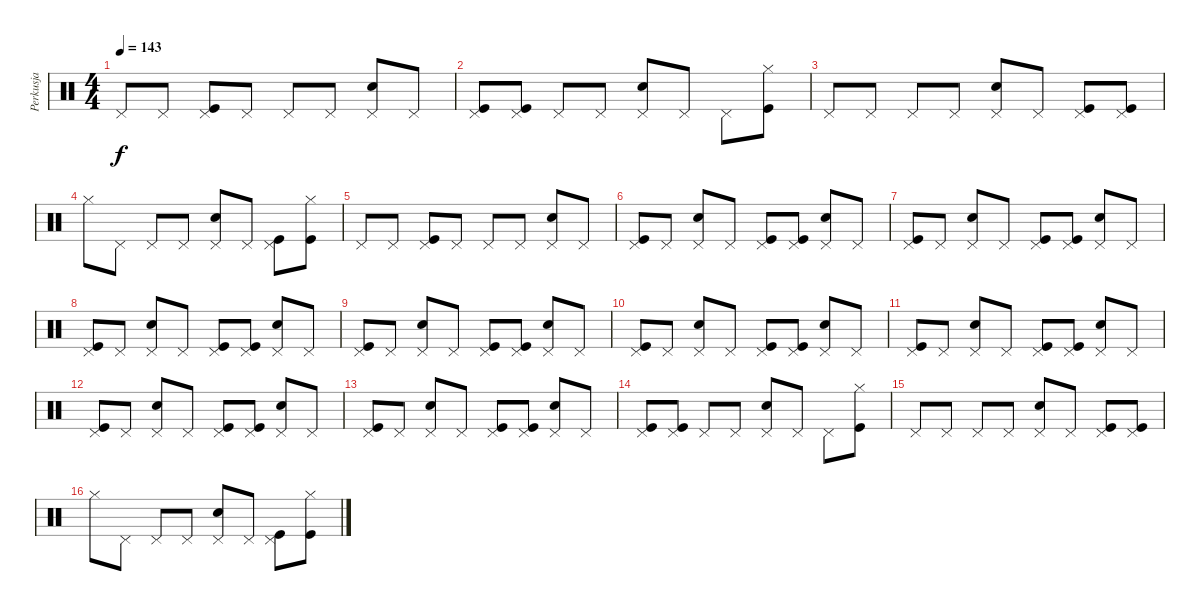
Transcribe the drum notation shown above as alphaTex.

\track ("Perkusja" "Perkusja") {instrument percussion}
\staff {score}
\articulation defaults
\ts (4 4)
\tempo 143
\clef neutral
\ks c "Pedal Hi-Hat (hit)".8{dy f} "Pedal Hi-Hat (hit)".8
("Pedal Hi-Hat (hit)" "Kick (hit)").8 "Pedal Hi-Hat (hit)".8 "Pedal Hi-Hat (hit)".8 "Pedal Hi-Hat (hit)".8 ("Pedal Hi-Hat (hit)" "Snare (hit) 2").8 "Pedal Hi-Hat (hit)".8 |
("Pedal Hi-Hat (hit)" "Kick (hit)").8 ("Pedal Hi-Hat (hit)" "Kick (hit)").8 "Pedal Hi-Hat (hit)".8 "Pedal Hi-Hat (hit)".8 ("Pedal Hi-Hat (hit)" "Snare (hit) 2").8 "Pedal Hi-Hat (hit)".8 "Pedal Hi-Hat (hit)".8 ("Hi-Hat (closed)" "Kick (hit)").8 |
"Pedal Hi-Hat (hit)".8 "Pedal Hi-Hat (hit)".8 "Pedal Hi-Hat (hit)".8 "Pedal Hi-Hat (hit)".8 ("Pedal Hi-Hat (hit)" "Snare (hit) 2").8 "Pedal Hi-Hat (hit)".8 ("Pedal Hi-Hat (hit)" "Kick (hit)").8 ("Pedal Hi-Hat (hit)" "Kick (hit)").8 |
"Hi-Hat (closed)".8 "Pedal Hi-Hat (hit)".8 "Pedal Hi-Hat (hit)".8 "Pedal Hi-Hat (hit)".8 ("Pedal Hi-Hat (hit)" "Snare (hit) 2").8 "Pedal Hi-Hat (hit)".8 ("Pedal Hi-Hat (hit)" "Kick (hit)").8 ("Hi-Hat (closed)" "Kick (hit)").8 |
"Pedal Hi-Hat (hit)".8 "Pedal Hi-Hat (hit)".8 ("Pedal Hi-Hat (hit)" "Kick (hit)").8 "Pedal Hi-Hat (hit)".8 "Pedal Hi-Hat (hit)".8 "Pedal Hi-Hat (hit)".8 ("Pedal Hi-Hat (hit)" "Snare (hit) 2").8 "Pedal Hi-Hat (hit)".8 |
("Pedal Hi-Hat (hit)" "Kick (hit)").8 "Pedal Hi-Hat (hit)".8 ("Pedal Hi-Hat (hit)" "Snare (hit) 2").8 "Pedal Hi-Hat (hit)".8 ("Pedal Hi-Hat (hit)" "Kick (hit)").8 ("Pedal Hi-Hat (hit)" "Kick (hit)").8 ("Pedal Hi-Hat (hit)" "Snare (hit) 2").8 "Pedal Hi-Hat (hit)".8 |
("Pedal Hi-Hat (hit)" "Kick (hit)").8 "Pedal Hi-Hat (hit)".8 ("Pedal Hi-Hat (hit)" "Snare (hit) 2").8 "Pedal Hi-Hat (hit)".8 ("Pedal Hi-Hat (hit)" "Kick (hit)").8 ("Pedal Hi-Hat (hit)" "Kick (hit)").8 ("Pedal Hi-Hat (hit)" "Snare (hit) 2").8 "Pedal Hi-Hat (hit)".8 |
("Pedal Hi-Hat (hit)" "Kick (hit)").8 "Pedal Hi-Hat (hit)".8 ("Pedal Hi-Hat (hit)" "Snare (hit) 2").8 "Pedal Hi-Hat (hit)".8 ("Pedal Hi-Hat (hit)" "Kick (hit)").8 ("Pedal Hi-Hat (hit)" "Kick (hit)").8 ("Pedal Hi-Hat (hit)" "Snare (hit) 2").8 "Pedal Hi-Hat (hit)".8 |
("Pedal Hi-Hat (hit)" "Kick (hit)").8 "Pedal Hi-Hat (hit)".8 ("Pedal Hi-Hat (hit)" "Snare (hit) 2").8 "Pedal Hi-Hat (hit)".8 ("Pedal Hi-Hat (hit)" "Kick (hit)").8 ("Pedal Hi-Hat (hit)" "Kick (hit)").8 ("Pedal Hi-Hat (hit)" "Snare (hit) 2").8 "Pedal Hi-Hat (hit)".8 |
("Pedal Hi-Hat (hit)" "Kick (hit)").8 "Pedal Hi-Hat (hit)".8 ("Pedal Hi-Hat (hit)" "Snare (hit) 2").8 "Pedal Hi-Hat (hit)".8 ("Pedal Hi-Hat (hit)" "Kick (hit)").8 ("Pedal Hi-Hat (hit)" "Kick (hit)").8 ("Pedal Hi-Hat (hit)" "Snare (hit) 2").8 "Pedal Hi-Hat (hit)".8 |
("Pedal Hi-Hat (hit)" "Kick (hit)").8 "Pedal Hi-Hat (hit)".8 ("Pedal Hi-Hat (hit)" "Snare (hit) 2").8 "Pedal Hi-Hat (hit)".8 ("Pedal Hi-Hat (hit)" "Kick (hit)").8 ("Pedal Hi-Hat (hit)" "Kick (hit)").8 ("Pedal Hi-Hat (hit)" "Snare (hit) 2").8 "Pedal Hi-Hat (hit)".8 |
("Pedal Hi-Hat (hit)" "Kick (hit)").8 "Pedal Hi-Hat (hit)".8 ("Pedal Hi-Hat (hit)" "Snare (hit) 2").8 "Pedal Hi-Hat (hit)".8 ("Pedal Hi-Hat (hit)" "Kick (hit)").8 ("Pedal Hi-Hat (hit)" "Kick (hit)").8 ("Pedal Hi-Hat (hit)" "Snare (hit) 2").8 "Pedal Hi-Hat (hit)".8 |
("Pedal Hi-Hat (hit)" "Kick (hit)").8 "Pedal Hi-Hat (hit)".8 ("Pedal Hi-Hat (hit)" "Snare (hit) 2").8 "Pedal Hi-Hat (hit)".8 ("Pedal Hi-Hat (hit)" "Kick (hit)").8 ("Pedal Hi-Hat (hit)" "Kick (hit)").8 ("Pedal Hi-Hat (hit)" "Snare (hit) 2").8 "Pedal Hi-Hat (hit)".8 |
("Pedal Hi-Hat (hit)" "Kick (hit)").8 ("Pedal Hi-Hat (hit)" "Kick (hit)").8 "Pedal Hi-Hat (hit)".8 "Pedal Hi-Hat (hit)".8 ("Pedal Hi-Hat (hit)" "Snare (hit) 2").8 "Pedal Hi-Hat (hit)".8 "Pedal Hi-Hat (hit)".8 ("Hi-Hat (closed)" "Kick (hit)").8 |
"Pedal Hi-Hat (hit)".8 "Pedal Hi-Hat (hit)".8 "Pedal Hi-Hat (hit)".8 "Pedal Hi-Hat (hit)".8 ("Pedal Hi-Hat (hit)" "Snare (hit) 2").8 "Pedal Hi-Hat (hit)".8 ("Pedal Hi-Hat (hit)" "Kick (hit)").8 ("Pedal Hi-Hat (hit)" "Kick (hit)").8 |
"Hi-Hat (closed)".8 "Pedal Hi-Hat (hit)".8 "Pedal Hi-Hat (hit)".8 "Pedal Hi-Hat (hit)".8 ("Pedal Hi-Hat (hit)" "Snare (hit) 2").8 "Pedal Hi-Hat (hit)".8 ("Pedal Hi-Hat (hit)" "Kick (hit)").8 ("Hi-Hat (closed)" "Kick (hit)").8
